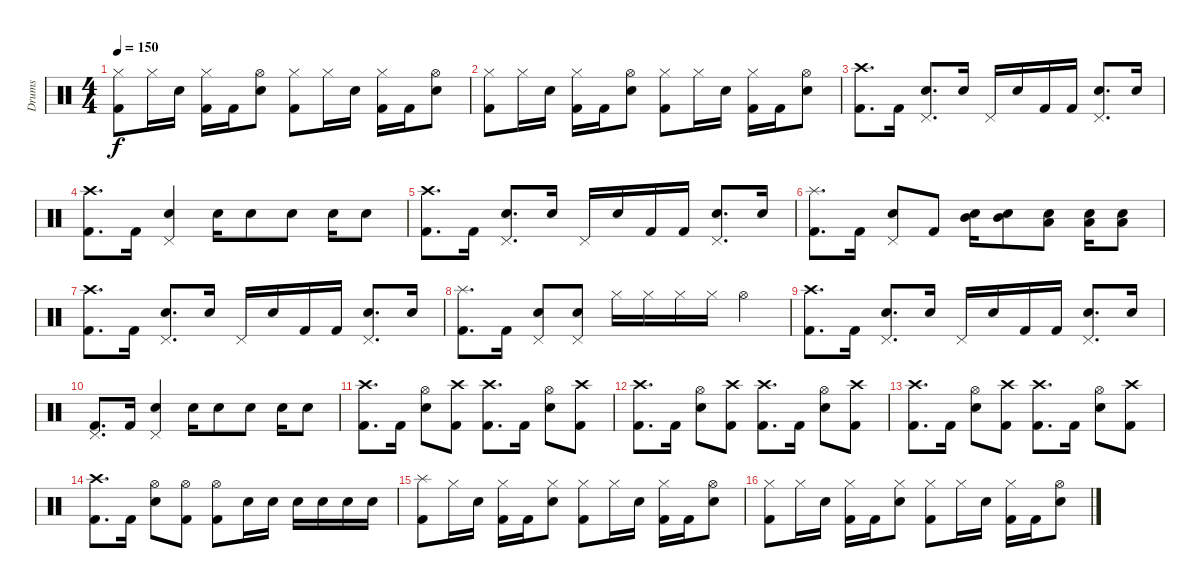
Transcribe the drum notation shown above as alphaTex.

\track ("Drums" "Drums") {instrument percussion}
\staff {score}
\articulation defaults
\ts (4 4)
\tempo 150
\clef neutral
\ks c
("Kick (hit) 2" "Hi-Hat (closed)").8{dy f} "Hi-Hat (closed)".16 "Electric Snare (hit)".16 ("Kick (hit) 2" "Hi-Hat (closed)").16 "Kick (hit) 2".16 ("Electric Snare (hit)" "Hi-Hat (open)").8 ("Kick (hit) 2" "Hi-Hat (closed)").8 "Hi-Hat (closed)".16 "Electric Snare (hit)".16 ("Kick (hit) 2" "Hi-Hat (closed)").16 "Kick (hit) 2".16 ("Electric Snare (hit)" "Hi-Hat (open)").8 |
("Kick (hit) 2" "Hi-Hat (closed)").8 "Hi-Hat (closed)".16 "Electric Snare (hit)".16 ("Kick (hit) 2" "Hi-Hat (closed)").16 "Kick (hit) 2".16 ("Electric Snare (hit)" "Hi-Hat (open)").8 ("Kick (hit) 2" "Hi-Hat (closed)").8 "Hi-Hat (closed)".16 "Electric Snare (hit)".16 ("Kick (hit) 2" "Hi-Hat (closed)").16 "Kick (hit) 2".16 ("Electric Snare (hit)" "Hi-Hat (open)").8 |
("Kick (hit) 2" "Crash high (hit)").8{d} "Kick (hit) 2".16 ("Electric Snare (hit)" "Pedal Hi-Hat (hit)").8{d} "Electric Snare (hit)".16 "Pedal Hi-Hat (hit)".16 "Electric Snare (hit)".16 "Kick (hit) 2".16 "Kick (hit) 2".16 ("Electric Snare (hit)" "Pedal Hi-Hat (hit)").8{d} "Electric Snare (hit)".16 |
("Kick (hit) 2" "Crash high (hit)").8{d} "Kick (hit) 2".16 ("Electric Snare (hit)" "Pedal Hi-Hat (hit)").4 "Electric Snare (hit)".16 "Electric Snare (hit)".8 "Electric Snare (hit)".8 "Electric Snare (hit)".16 "Electric Snare (hit)".8 |
("Kick (hit) 2" "Crash high (hit)").8{d} "Kick (hit) 2".16 ("Electric Snare (hit)" "Pedal Hi-Hat (hit)").8{d} "Electric Snare (hit)".16 "Pedal Hi-Hat (hit)".16 "Electric Snare (hit)".16 "Kick (hit) 2".16 "Kick (hit) 2".16 ("Electric Snare (hit)" "Pedal Hi-Hat (hit)").8{d} "Electric Snare (hit)".16 |
("Kick (hit) 2" "Splash (hit)").8{d} "Kick (hit) 2".16 ("Electric Snare (hit)" "Pedal Hi-Hat (hit)").8 "Kick (hit) 2".8 ("Electric Snare (hit)" "Mid Tom (hit)").16 ("Electric Snare (hit)" "Mid Tom (hit)").8 ("Electric Snare (hit)" "Low Tom (hit)").8 ("Electric Snare (hit)" "Low Floor Tom (hit)").16 ("Electric Snare (hit)" "Low Floor Tom (hit)").8 |
("Kick (hit) 2" "Crash high (hit)").8{d} "Kick (hit) 2".16 ("Electric Snare (hit)" "Pedal Hi-Hat (hit)").8{d} "Electric Snare (hit)".16 "Pedal Hi-Hat (hit)".16 "Electric Snare (hit)".16 "Kick (hit) 2".16 "Kick (hit) 2".16 ("Electric Snare (hit)" "Pedal Hi-Hat (hit)").8{d} "Electric Snare (hit)".16 |
("Kick (hit) 2" "Splash (hit)").8{d} "Kick (hit) 2".16 ("Electric Snare (hit)" "Pedal Hi-Hat (hit)").8 ("Electric Snare (hit)" "Pedal Hi-Hat (hit)").8 "Hi-Hat (closed)".16 "Hi-Hat (closed)".16 "Hi-Hat (closed)".16 "Hi-Hat (closed)".16 "Hi-Hat (open)".4 |
("Kick (hit) 2" "Crash high (hit)").8{d} "Kick (hit) 2".16 ("Electric Snare (hit)" "Pedal Hi-Hat (hit)").8{d} "Electric Snare (hit)".16 "Pedal Hi-Hat (hit)".16 "Electric Snare (hit)".16 "Kick (hit) 2".16 "Kick (hit) 2".16 ("Electric Snare (hit)" "Pedal Hi-Hat (hit)").8{d} "Electric Snare (hit)".16 |
("Kick (hit) 2" "Pedal Hi-Hat (hit)").8{d} "Kick (hit) 2".16 ("Electric Snare (hit)" "Pedal Hi-Hat (hit)").4 "Electric Snare (hit)".16 "Electric Snare (hit)".8 "Electric Snare (hit)".8 "Electric Snare (hit)".16 "Electric Snare (hit)".8 |
("Kick (hit) 2" "Crash high (hit)").8{d} "Kick (hit) 2".16 ("Electric Snare (hit)" "Hi-Hat (open)").8 ("Kick (hit) 2" "Crash high (hit)").8 ("Kick (hit) 2" "Crash high (hit)").8{d} "Kick (hit) 2".16 ("Electric Snare (hit)" "Hi-Hat (open)").8 ("Kick (hit) 2" "Crash high (hit)").8 |
("Kick (hit) 2" "Crash high (hit)").8{d} "Kick (hit) 2".16 ("Electric Snare (hit)" "Hi-Hat (open)").8 ("Kick (hit) 2" "Crash high (hit)").8 ("Kick (hit) 2" "Crash high (hit)").8{d} "Kick (hit) 2".16 ("Electric Snare (hit)" "Hi-Hat (open)").8 ("Kick (hit) 2" "Crash high (hit)").8 |
("Kick (hit) 2" "Crash high (hit)").8{d} "Kick (hit) 2".16 ("Electric Snare (hit)" "Hi-Hat (open)").8 ("Kick (hit) 2" "Crash high (hit)").8 ("Kick (hit) 2" "Crash high (hit)").8{d} "Kick (hit) 2".16 ("Electric Snare (hit)" "Hi-Hat (open)").8 ("Kick (hit) 2" "Crash high (hit)").8 |
("Kick (hit) 2" "Crash high (hit)").8{d} "Kick (hit) 2".16 ("Electric Snare (hit)" "Hi-Hat (open)").8 ("Kick (hit) 2" "Hi-Hat (open)").8 ("Kick (hit) 2" "Hi-Hat (open)").8 "Electric Snare (hit)".16 "Electric Snare (hit)".16 "Electric Snare (hit)".16 "Electric Snare (hit)".16 "Electric Snare (hit)".16 "Electric Snare (hit)".16 |
("Kick (hit) 2" "Splash (hit)").8 "Hi-Hat (closed)".16 "Electric Snare (hit)".16 ("Kick (hit) 2" "Hi-Hat (closed)").16 "Kick (hit) 2".16 ("Electric Snare (hit)" "Hi-Hat (closed)").8 ("Kick (hit) 2" "Hi-Hat (closed)").8 "Hi-Hat (closed)".16 "Electric Snare (hit)".16 ("Kick (hit) 2" "Hi-Hat (closed)").16 "Kick (hit) 2".16 ("Electric Snare (hit)" "Hi-Hat (open)").8 |
("Kick (hit) 2" "Hi-Hat (closed)").8 "Hi-Hat (closed)".16 "Electric Snare (hit)".16 ("Kick (hit) 2" "Hi-Hat (closed)").16 "Kick (hit) 2".16 ("Electric Snare (hit)" "Hi-Hat (closed)").8 ("Kick (hit) 2" "Hi-Hat (closed)").8 "Hi-Hat (closed)".16 "Electric Snare (hit)".16 ("Kick (hit) 2" "Hi-Hat (closed)").16 "Kick (hit) 2".16 ("Electric Snare (hit)" "Hi-Hat (open)").8
